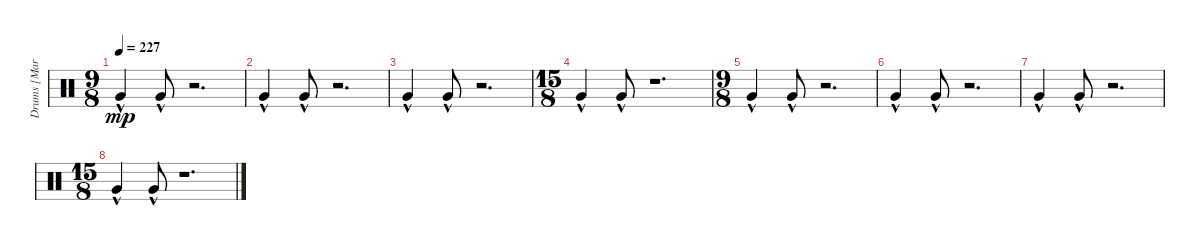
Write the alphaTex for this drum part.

\track ("Drums [Martin Lopez]" "Drums [Mar") {instrument percussion}
\staff {score}
\articulation defaults
\ts (9 8)
\tempo 227
\clef neutral
\ks c "Very Low Tom (hit)"{hac}.4{dy mp} "Very Low Tom (hit)"{hac}.8
r.2{d} |
"Very Low Tom (hit)"{hac}.4 "Very Low Tom (hit)"{hac}.8 r.2{d} |
"Very Low Tom (hit)"{hac}.4 "Very Low Tom (hit)"{hac}.8 r.2{d} |
\ts (15 8)
"Very Low Tom (hit)"{hac}.4 "Very Low Tom (hit)"{hac}.8 r.1{d} |
\ts (9 8)
"Very Low Tom (hit)"{hac}.4 "Very Low Tom (hit)"{hac}.8 r.2{d} |
"Very Low Tom (hit)"{hac}.4 "Very Low Tom (hit)"{hac}.8 r.2{d} |
"Very Low Tom (hit)"{hac}.4 "Very Low Tom (hit)"{hac}.8 r.2{d} |
\ts (15 8)
"Very Low Tom (hit)"{hac}.4 "Very Low Tom (hit)"{hac}.8 r.1{d}
